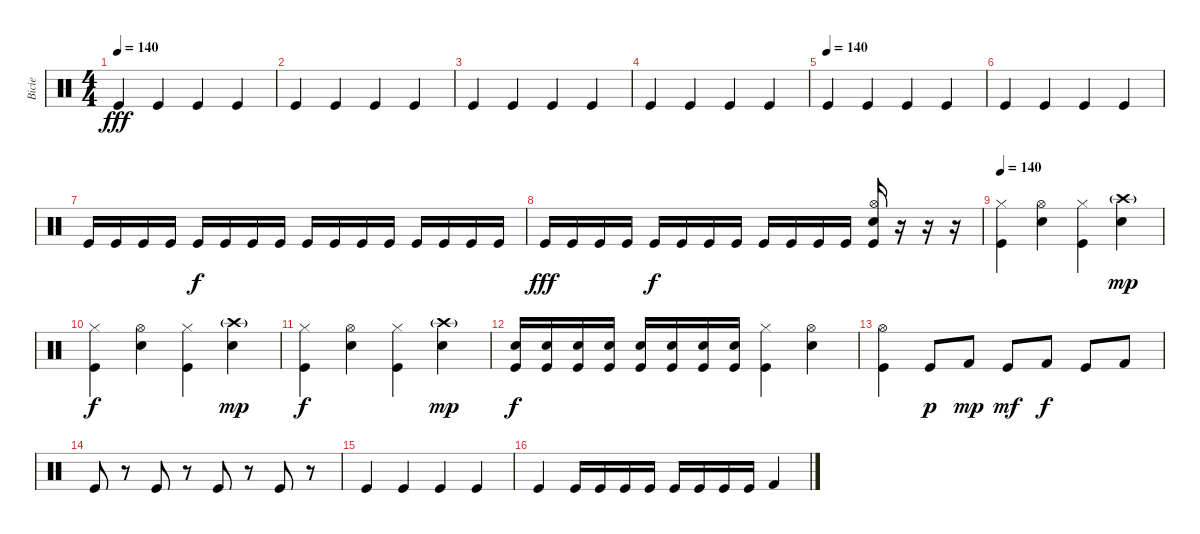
\track ("Bicie" "Bicie") {instrument percussion}
\staff {score}
\articulation defaults
\ts (4 4)
\tempo 140
\clef neutral
\ks c "Kick (hit)".4{dy fff} "Kick (hit)".4 "Kick (hit)".4 "Kick (hit)".4
|
"Kick (hit)".4 "Kick (hit)".4 "Kick (hit)".4 "Kick (hit)".4 |
"Kick (hit)".4 "Kick (hit)".4 "Kick (hit)".4 "Kick (hit)".4 |
"Kick (hit)".4 "Kick (hit)".4 "Kick (hit)".4 "Kick (hit)".4 |
\tempo (140)
"Kick (hit)".4 "Kick (hit)".4 "Kick (hit)".4 "Kick (hit)".4 |
"Kick (hit)".4 "Kick (hit)".4 "Kick (hit)".4 "Kick (hit)".4 |
"Kick (hit)".16 "Kick (hit)".16 "Kick (hit)".16 "Kick (hit)".16 "Kick (hit)".16{dy f} "Kick (hit)".16 "Kick (hit)".16 "Kick (hit)".16 "Kick (hit)".16 "Kick (hit)".16 "Kick (hit)".16 "Kick (hit)".16 "Kick (hit)".16 "Kick (hit)".16 "Kick (hit)".16 "Kick (hit)".16 |
"Kick (hit)".16{dy fff} "Kick (hit)".16 "Kick (hit)".16 "Kick (hit)".16 "Kick (hit)".16{dy f} "Kick (hit)".16 "Kick (hit)".16 "Kick (hit)".16 "Kick (hit)".16 "Kick (hit)".16 "Kick (hit)".16 "Kick (hit)".16 ("Hi-Hat (open)" "Electric Snare (hit)" "Kick (hit)").16 r.16 r.16 r.16 |
\tempo 140
("Hi-Hat (closed)" "Kick (hit)").4 ("Hi-Hat (open)" "Electric Snare (hit)").4 ("Hi-Hat (closed)" "Kick (hit)").4 ("Crash high (hit)"{g} "Electric Snare (hit)").4{dy mp} |
("Hi-Hat (closed)" "Kick (hit)").4{dy f} ("Hi-Hat (open)" "Electric Snare (hit)").4 ("Hi-Hat (closed)" "Kick (hit)").4 ("Crash high (hit)"{g} "Electric Snare (hit)").4{dy mp} |
("Hi-Hat (closed)" "Kick (hit)").4{dy f} ("Hi-Hat (open)" "Electric Snare (hit)").4 ("Hi-Hat (closed)" "Kick (hit)").4 ("Crash high (hit)"{g} "Electric Snare (hit)").4{dy mp} |
("Electric Snare (hit)" "Kick (hit)").16{dy f} ("Electric Snare (hit)" "Kick (hit)").16 ("Electric Snare (hit)" "Kick (hit)").16 ("Electric Snare (hit)" "Kick (hit)").16 ("Electric Snare (hit)" "Kick (hit)").16 ("Electric Snare (hit)" "Kick (hit)").16 ("Electric Snare (hit)" "Kick (hit)").16 ("Electric Snare (hit)" "Kick (hit)").16 ("Hi-Hat (closed)" "Kick (hit)").4 ("Hi-Hat (open)" "Electric Snare (hit)").4 |
("Hi-Hat (open)" "Kick (hit)").4 "Kick (hit)".8{dy p} "Kick (hit) 2".8{dy mp} "Kick (hit)".8{dy mf} "Kick (hit) 2".8{dy f} "Kick (hit)".8 "Kick (hit) 2".8 |
"Kick (hit)".8 r.8 "Kick (hit)".8 r.8 "Kick (hit)".8 r.8 "Kick (hit)".8 r.8 |
"Kick (hit)".4 "Kick (hit)".4 "Kick (hit)".4 "Kick (hit)".4 |
"Kick (hit)".4 "Kick (hit)".16 "Kick (hit)".16 "Kick (hit)".16 "Kick (hit)".16 "Kick (hit)".16 "Kick (hit)".16 "Kick (hit)".16 "Kick (hit)".16 "Kick (hit) 2".4
